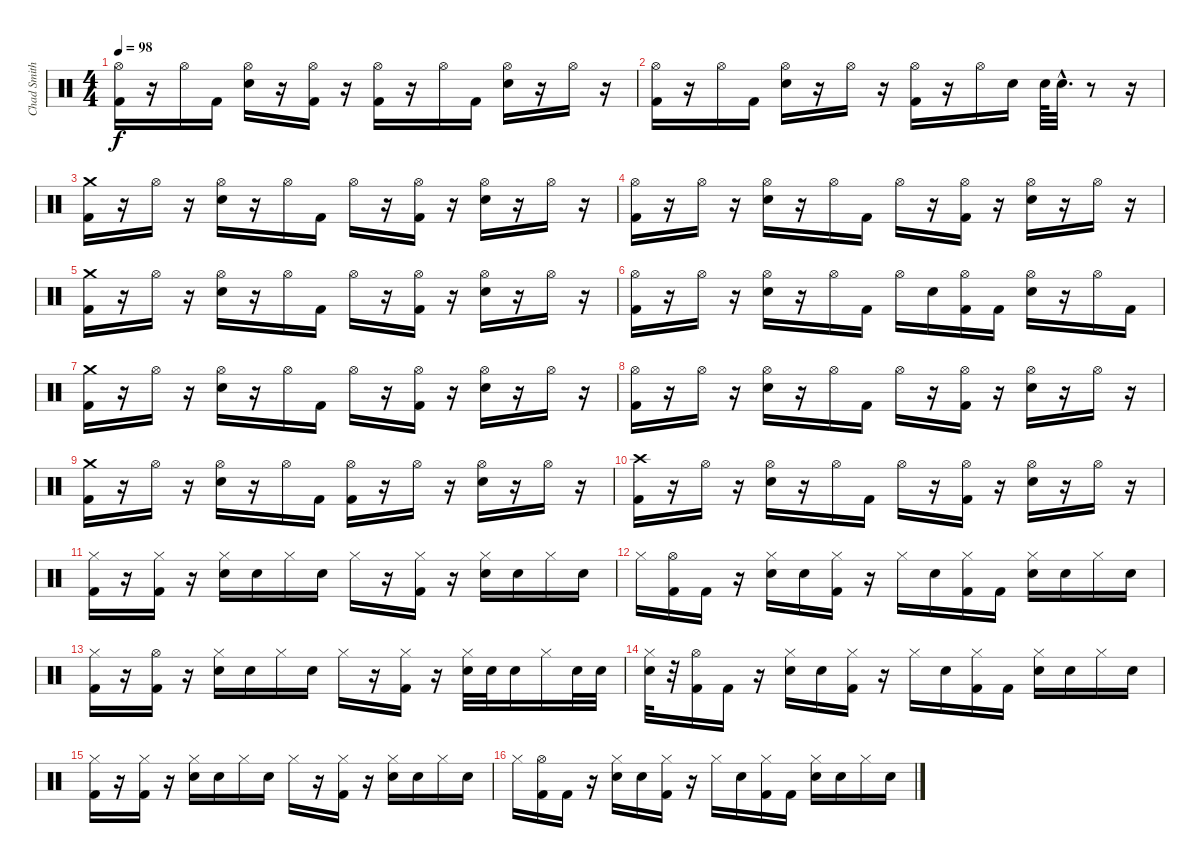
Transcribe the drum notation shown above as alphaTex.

\track ("Chad Smith" "Chad Smith") {instrument percussion}
\staff {score}
\articulation defaults
\ts (4 4)
\tempo 98
\clef neutral
\ks c
("Kick (hit) 2" "Hi-Hat (open)").16{dy f} r.16 "Hi-Hat (open)".16 "Kick (hit) 2".16 ("Electric Snare (hit)" "Hi-Hat (open)").16 r.16 ("Kick (hit) 2" "Hi-Hat (open)").16 r.16 ("Kick (hit) 2" "Hi-Hat (open)").16 r.16 "Hi-Hat (open)".16 "Kick (hit) 2".16 ("Electric Snare (hit)" "Hi-Hat (open)").16 r.16 "Hi-Hat (open)".16 r.16 |
("Hi-Hat (open)" "Kick (hit) 2").16 r.16 "Hi-Hat (open)".16 "Kick (hit) 2".16 ("Electric Snare (hit)" "Hi-Hat (open)").16 r.16 "Hi-Hat (open)".16 r.16 ("Kick (hit) 2" "Hi-Hat (open)").16 r.16 "Hi-Hat (open)".16 "Electric Snare (hit)".16 "Electric Snare (hit)".64 "Electric Snare (hit)"{hac}.32{d} r.8 r.16 |
("Kick (hit) 2" "Crash medium (hit)").16 r.16 "Hi-Hat (open)".16 r.16 ("Electric Snare (hit)" "Hi-Hat (open)").16 r.16 "Hi-Hat (open)".16 "Kick (hit) 2".16 "Hi-Hat (open)".16 r.16 ("Hi-Hat (open)" "Kick (hit) 2").16 r.16 ("Hi-Hat (open)" "Electric Snare (hit)").16 r.16 "Hi-Hat (open)".16 r.16 |
("Hi-Hat (open)" "Kick (hit) 2").16 r.16 "Hi-Hat (open)".16 r.16 ("Hi-Hat (open)" "Electric Snare (hit)").16 r.16 "Hi-Hat (open)".16 "Kick (hit) 2".16 "Hi-Hat (open)".16 r.16 ("Hi-Hat (open)" "Kick (hit) 2").16 r.16 ("Hi-Hat (open)" "Electric Snare (hit)").16 r.16 "Hi-Hat (open)".16 r.16 |
("Kick (hit) 2" "Crash medium (hit)").16 r.16 "Hi-Hat (open)".16 r.16 ("Electric Snare (hit)" "Hi-Hat (open)").16 r.16 "Hi-Hat (open)".16 "Kick (hit) 2".16 "Hi-Hat (open)".16 r.16 ("Hi-Hat (open)" "Kick (hit) 2").16 r.16 ("Hi-Hat (open)" "Electric Snare (hit)").16 r.16 "Hi-Hat (open)".16 r.16 |
("Hi-Hat (open)" "Kick (hit) 2").16 r.16 "Hi-Hat (open)".16 r.16 ("Hi-Hat (open)" "Electric Snare (hit)").16 r.16 "Hi-Hat (open)".16 "Kick (hit) 2".16 "Hi-Hat (open)".16 "Electric Snare (hit)".16 ("Hi-Hat (open)" "Kick (hit) 2").16 "Kick (hit) 2".16 ("Hi-Hat (open)" "Electric Snare (hit)").16 r.16 "Hi-Hat (open)".16 "Kick (hit) 2".16 |
("Kick (hit) 2" "Crash medium (hit)").16 r.16 "Hi-Hat (open)".16 r.16 ("Electric Snare (hit)" "Hi-Hat (open)").16 r.16 "Hi-Hat (open)".16 "Kick (hit) 2".16 "Hi-Hat (open)".16 r.16 ("Hi-Hat (open)" "Kick (hit) 2").16 r.16 ("Hi-Hat (open)" "Electric Snare (hit)").16 r.16 "Hi-Hat (open)".16 r.16 |
("Hi-Hat (open)" "Kick (hit) 2").16 r.16 "Hi-Hat (open)".16 r.16 ("Hi-Hat (open)" "Electric Snare (hit)").16 r.16 "Hi-Hat (open)".16 "Kick (hit) 2".16 "Hi-Hat (open)".16 r.16 ("Hi-Hat (open)" "Kick (hit) 2").16 r.16 ("Hi-Hat (open)" "Electric Snare (hit)").16 r.16 "Hi-Hat (open)".16 r.16 |
("Kick (hit) 2" "Crash medium (hit)").16 r.16 "Hi-Hat (open)".16 r.16 ("Electric Snare (hit)" "Hi-Hat (open)").16 r.16 "Hi-Hat (open)".16 "Kick (hit) 2".16 ("Kick (hit) 2" "Hi-Hat (open)").16 r.16 "Hi-Hat (open)".16 r.16 ("Hi-Hat (open)" "Electric Snare (hit)").16 r.16 "Hi-Hat (open)".16 r.16 |
("Crash high (hit)" "Kick (hit) 2").16 r.16 "Hi-Hat (open)".16 r.16 ("Hi-Hat (open)" "Electric Snare (hit)").16 r.16 "Hi-Hat (open)".16 "Kick (hit) 2".16 "Hi-Hat (open)".16 r.16 ("Hi-Hat (open)" "Kick (hit) 2").16 r.16 ("Hi-Hat (open)" "Electric Snare (hit)").16 r.16 "Hi-Hat (open)".16 r.16 |
("Kick (hit) 2" "Hi-Hat (closed)").16 r.16 ("Hi-Hat (closed)" "Kick (hit) 2").16 r.16 ("Hi-Hat (closed)" "Electric Snare (hit)").16 "Electric Snare (hit)".16 "Hi-Hat (closed)".16 "Electric Snare (hit)".16 "Hi-Hat (closed)".16 r.16 ("Hi-Hat (closed)" "Kick (hit) 2").16 r.16 ("Hi-Hat (closed)" "Electric Snare (hit)").16 "Electric Snare (hit)".16 "Hi-Hat (closed)".16 "Electric Snare (hit)".16 |
"Hi-Hat (closed)".16 ("Hi-Hat (open)" "Kick (hit) 2").16 "Kick (hit) 2".16 r.16 ("Hi-Hat (closed)" "Electric Snare (hit)").16 "Electric Snare (hit)".16 ("Hi-Hat (closed)" "Kick (hit) 2").16 r.16 "Hi-Hat (closed)".16 "Electric Snare (hit)".16 ("Hi-Hat (closed)" "Kick (hit) 2").16 "Kick (hit) 2".16 ("Hi-Hat (closed)" "Electric Snare (hit)").16 "Electric Snare (hit)".16 "Hi-Hat (closed)".16 "Electric Snare (hit)".16 |
("Kick (hit) 2" "Hi-Hat (closed)").16 r.16 ("Hi-Hat (open)" "Kick (hit) 2").16 r.16 ("Hi-Hat (closed)" "Electric Snare (hit)").16 "Electric Snare (hit)".16 "Hi-Hat (closed)".16 "Electric Snare (hit)".16 "Hi-Hat (closed)".16 r.16 ("Hi-Hat (closed)" "Kick (hit) 2").16 r.16 ("Hi-Hat (closed)" "Electric Snare (hit)").32 "Electric Snare (hit)".32 "Electric Snare (hit)".16 "Hi-Hat (closed)".16 "Electric Snare (hit)".32 "Electric Snare (hit)".32 |
("Electric Snare (hit)" "Hi-Hat (closed)").32 r.32 ("Hi-Hat (open)" "Kick (hit) 2").16 "Kick (hit) 2".16 r.16 ("Hi-Hat (closed)" "Electric Snare (hit)").16 "Electric Snare (hit)".16 ("Hi-Hat (closed)" "Kick (hit) 2").16 r.16 "Hi-Hat (closed)".16 "Electric Snare (hit)".16 ("Hi-Hat (closed)" "Kick (hit) 2").16 "Kick (hit) 2".16 ("Hi-Hat (closed)" "Electric Snare (hit)").16 "Electric Snare (hit)".16 "Hi-Hat (closed)".16 "Electric Snare (hit)".16 |
("Kick (hit) 2" "Hi-Hat (closed)").16 r.16 ("Hi-Hat (closed)" "Kick (hit) 2").16 r.16 ("Hi-Hat (closed)" "Electric Snare (hit)").16 "Electric Snare (hit)".16 "Hi-Hat (closed)".16 "Electric Snare (hit)".16 "Hi-Hat (closed)".16 r.16 ("Hi-Hat (closed)" "Kick (hit) 2").16 r.16 ("Hi-Hat (closed)" "Electric Snare (hit)").16 "Electric Snare (hit)".16 "Hi-Hat (closed)".16 "Electric Snare (hit)".16 |
"Hi-Hat (closed)".16 ("Hi-Hat (open)" "Kick (hit) 2").16 "Kick (hit) 2".16 r.16 ("Hi-Hat (closed)" "Electric Snare (hit)").16 "Electric Snare (hit)".16 ("Hi-Hat (closed)" "Kick (hit) 2").16 r.16 "Hi-Hat (closed)".16 "Electric Snare (hit)".16 ("Hi-Hat (closed)" "Kick (hit) 2").16 "Kick (hit) 2".16 ("Hi-Hat (closed)" "Electric Snare (hit)").16 "Electric Snare (hit)".16 "Hi-Hat (closed)".16 "Electric Snare (hit)".16
